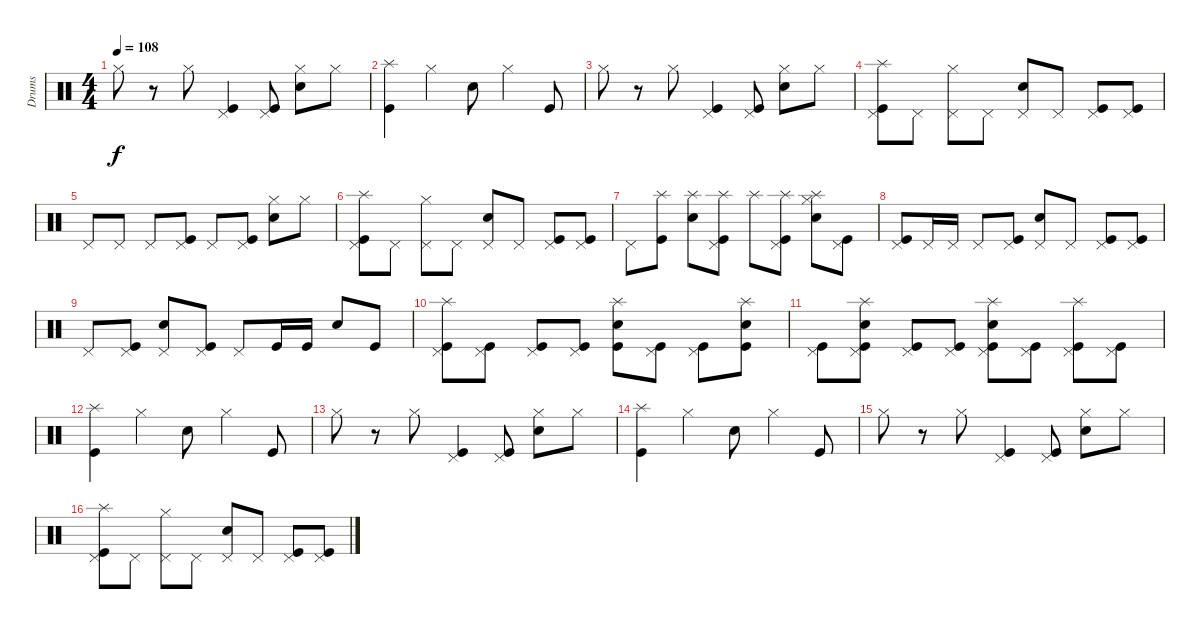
\track ("Drums" "Drums") {instrument percussion}
\staff {score}
\articulation defaults
\ts (4 4)
\tempo 108
\clef neutral
\ks c "Hi-Hat (closed)".8{dy f}
r.8 "Hi-Hat (closed)".8 ("Kick (hit)" "Pedal Hi-Hat (hit)").4 ("Kick (hit)" "Pedal Hi-Hat (hit)").8 ("Electric Snare (hit)" "Hi-Hat (closed)").8 "Hi-Hat (closed)".8 |
("Kick (hit)" "Splash (hit)").4 "Hi-Hat (closed)".4 "Electric Snare (hit)".8 "Hi-Hat (closed)".4 "Kick (hit)".8 |
"Hi-Hat (closed)".8 r.8 "Hi-Hat (closed)".8 ("Kick (hit)" "Pedal Hi-Hat (hit)").4 ("Kick (hit)" "Pedal Hi-Hat (hit)").8 ("Electric Snare (hit)" "Hi-Hat (closed)").8 "Hi-Hat (closed)".8 |
("Kick (hit)" "Splash (hit)" "Pedal Hi-Hat (hit)").8 "Pedal Hi-Hat (hit)".8 ("Hi-Hat (closed)" "Pedal Hi-Hat (hit)").8 "Pedal Hi-Hat (hit)".8 ("Electric Snare (hit)" "Pedal Hi-Hat (hit)").8 "Pedal Hi-Hat (hit)".8 ("Kick (hit)" "Pedal Hi-Hat (hit)").8 ("Kick (hit)" "Pedal Hi-Hat (hit)").8 |
"Pedal Hi-Hat (hit)".8 "Pedal Hi-Hat (hit)".8 "Pedal Hi-Hat (hit)".8 ("Kick (hit)" "Pedal Hi-Hat (hit)").8 "Pedal Hi-Hat (hit)".8 ("Kick (hit)" "Pedal Hi-Hat (hit)").8 ("Electric Snare (hit)" "Hi-Hat (closed)").8 "Hi-Hat (closed)".8 |
("Kick (hit)" "Splash (hit)" "Pedal Hi-Hat (hit)").8 "Pedal Hi-Hat (hit)".8 ("Hi-Hat (closed)" "Pedal Hi-Hat (hit)").8 "Pedal Hi-Hat (hit)".8 ("Electric Snare (hit)" "Pedal Hi-Hat (hit)").8 "Pedal Hi-Hat (hit)".8 ("Kick (hit)" "Pedal Hi-Hat (hit)").8 ("Kick (hit)" "Pedal Hi-Hat (hit)").8 |
"Pedal Hi-Hat (hit)".8 ("Kick (hit)" "Splash (hit)").8 ("Electric Snare (hit)" "Splash (hit)").8 ("Kick (hit)" "Pedal Hi-Hat (hit)" "Splash (hit)").8 "Splash (hit)".8 ("Kick (hit)" "Pedal Hi-Hat (hit)" "Splash (hit)").8 ("Electric Snare (hit)" "Hi-Hat (closed)" "Splash (hit)").8 ("Kick (hit)" "Pedal Hi-Hat (hit)").8 |
("Pedal Hi-Hat (hit)" "Kick (hit)").8 "Pedal Hi-Hat (hit)".16 "Pedal Hi-Hat (hit)".16 "Pedal Hi-Hat (hit)".8 ("Pedal Hi-Hat (hit)" "Kick (hit)").8 ("Pedal Hi-Hat (hit)" "Electric Snare (hit)").8 "Pedal Hi-Hat (hit)".8 ("Pedal Hi-Hat (hit)" "Kick (hit)").8 ("Pedal Hi-Hat (hit)" "Kick (hit)").8 |
"Pedal Hi-Hat (hit)".8 ("Pedal Hi-Hat (hit)" "Kick (hit)").8 ("Pedal Hi-Hat (hit)" "Electric Snare (hit)").8 ("Pedal Hi-Hat (hit)" "Kick (hit)").8 "Pedal Hi-Hat (hit)".8 "Kick (hit)".16 "Kick (hit)".16 "Electric Snare (hit)".8 "Kick (hit)".8 |
("Pedal Hi-Hat (hit)" "Kick (hit)" "Splash (hit)").8 ("Pedal Hi-Hat (hit)" "Kick (hit)").8 ("Pedal Hi-Hat (hit)" "Kick (hit)").8 ("Pedal Hi-Hat (hit)" "Kick (hit)").8 ("Kick (hit)" "Electric Snare (hit)" "Splash (hit)").8 ("Pedal Hi-Hat (hit)" "Kick (hit)").8 ("Pedal Hi-Hat (hit)" "Kick (hit)").8 ("Kick (hit)" "Electric Snare (hit)" "Splash (hit)").8 |
("Pedal Hi-Hat (hit)" "Kick (hit)").8 ("Pedal Hi-Hat (hit)" "Kick (hit)" "Electric Snare (hit)" "Splash (hit)").8 ("Pedal Hi-Hat (hit)" "Kick (hit)").8 ("Pedal Hi-Hat (hit)" "Kick (hit)").8 ("Pedal Hi-Hat (hit)" "Kick (hit)" "Electric Snare (hit)" "Splash (hit)").8 ("Pedal Hi-Hat (hit)" "Kick (hit)").8 ("Pedal Hi-Hat (hit)" "Kick (hit)" "Splash (hit)").8 ("Pedal Hi-Hat (hit)" "Kick (hit)").8 |
("Kick (hit)" "Splash (hit)").4 "Hi-Hat (closed)".4 "Electric Snare (hit)".8 "Hi-Hat (closed)".4 "Kick (hit)".8 |
"Hi-Hat (closed)".8 r.8 "Hi-Hat (closed)".8 ("Kick (hit)" "Pedal Hi-Hat (hit)").4 ("Kick (hit)" "Pedal Hi-Hat (hit)").8 ("Electric Snare (hit)" "Hi-Hat (closed)").8 "Hi-Hat (closed)".8 |
("Kick (hit)" "Splash (hit)").4 "Hi-Hat (closed)".4 "Electric Snare (hit)".8 "Hi-Hat (closed)".4 "Kick (hit)".8 |
"Hi-Hat (closed)".8 r.8 "Hi-Hat (closed)".8 ("Kick (hit)" "Pedal Hi-Hat (hit)").4 ("Kick (hit)" "Pedal Hi-Hat (hit)").8 ("Electric Snare (hit)" "Hi-Hat (closed)").8 "Hi-Hat (closed)".8 |
("Kick (hit)" "Splash (hit)" "Pedal Hi-Hat (hit)").8 "Pedal Hi-Hat (hit)".8 ("Hi-Hat (closed)" "Pedal Hi-Hat (hit)").8 "Pedal Hi-Hat (hit)".8 ("Electric Snare (hit)" "Pedal Hi-Hat (hit)").8 "Pedal Hi-Hat (hit)".8 ("Kick (hit)" "Pedal Hi-Hat (hit)").8 ("Kick (hit)" "Pedal Hi-Hat (hit)").8
